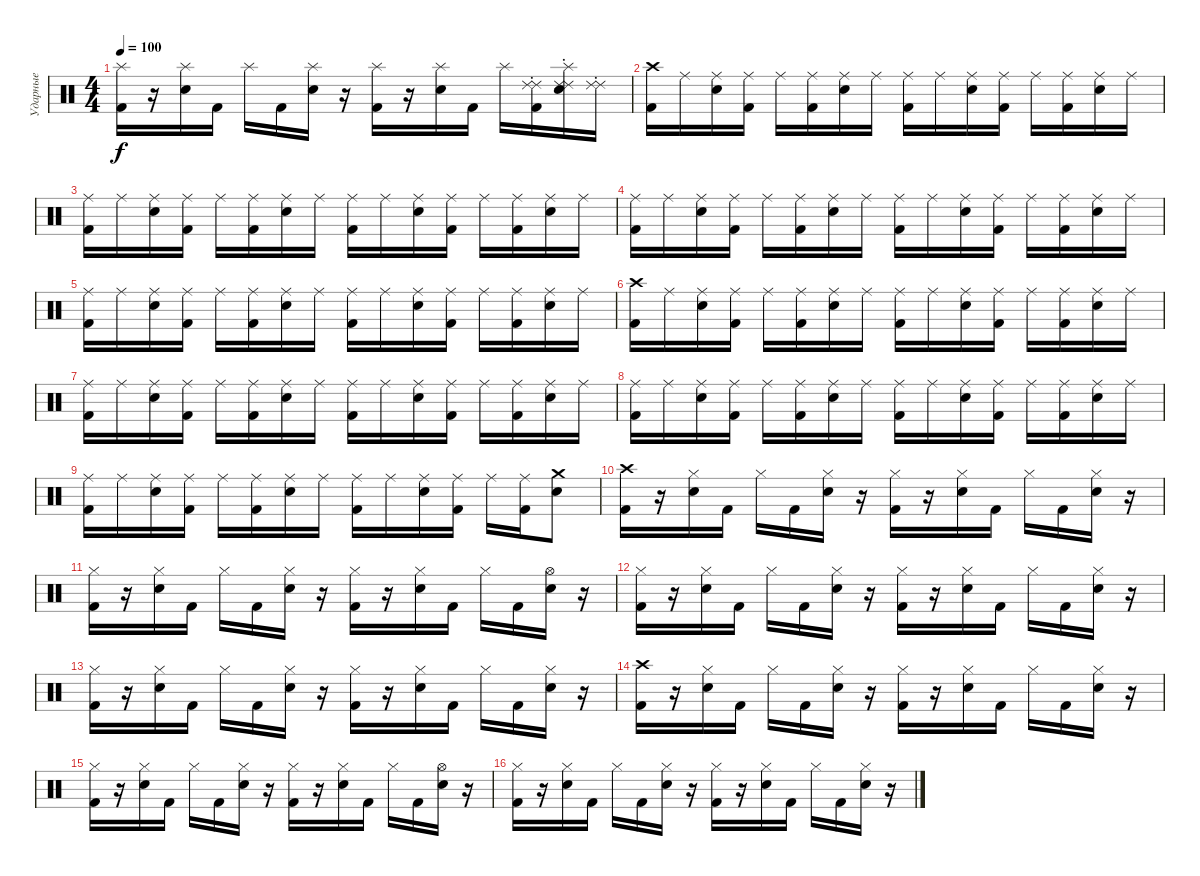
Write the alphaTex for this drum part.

\track ("Ударные" "Ударные") {instrument percussion}
\staff {score}
\articulation defaults
\ts (4 4)
\tempo 100
\clef neutral
\ks c
("Splash (hit)" "Kick (hit) 2").16{dy f} r.16 ("Splash (hit)" "Electric Snare (hit)").16 "Kick (hit) 2".16 "Splash (hit)".16 "Kick (hit) 2".16 ("Splash (hit)" "Electric Snare (hit)").16 r.16 ("Splash (hit)" "Kick (hit) 2").16 r.16 ("Splash (hit)" "Electric Snare (hit)").16 "Kick (hit) 2".16 "Splash (hit)".16 ("Ride (choke) 2" "Ride (choke) 2" "Kick (hit) 2").16 ("Splash (hit)" "Ride (choke) 2" "Ride (choke) 2" "Electric Snare (hit)").16 ("Ride (choke) 2" "Ride (choke) 2").16 |
("Crash high (hit)" "Kick (hit) 2").16 "Ride (middle)".16 ("Ride (middle)" "Electric Snare (hit)").16 ("Ride (middle)" "Kick (hit) 2").16 "Ride (middle)".16 ("Ride (middle)" "Kick (hit) 2").16 ("Ride (middle)" "Electric Snare (hit)").16 "Ride (middle)".16 ("Ride (middle)" "Kick (hit) 2").16 "Ride (middle)".16 ("Ride (middle)" "Electric Snare (hit)").16 ("Ride (middle)" "Kick (hit) 2").16 "Ride (middle)".16 ("Ride (middle)" "Kick (hit) 2").16 ("Ride (middle)" "Electric Snare (hit)").16 "Ride (middle)".16 |
("Ride (middle)" "Kick (hit) 2").16 "Ride (middle)".16 ("Ride (middle)" "Electric Snare (hit)").16 ("Ride (middle)" "Kick (hit) 2").16 "Ride (middle)".16 ("Ride (middle)" "Kick (hit) 2").16 ("Ride (middle)" "Electric Snare (hit)").16 "Ride (middle)".16 ("Ride (middle)" "Kick (hit) 2").16 "Ride (middle)".16 ("Ride (middle)" "Electric Snare (hit)").16 ("Ride (middle)" "Kick (hit) 2").16 "Ride (middle)".16 ("Ride (middle)" "Kick (hit) 2").16 ("Ride (middle)" "Electric Snare (hit)").16 "Ride (middle)".16 |
("Ride (middle)" "Kick (hit) 2").16 "Ride (middle)".16 ("Ride (middle)" "Electric Snare (hit)").16 ("Ride (middle)" "Kick (hit) 2").16 "Ride (middle)".16 ("Ride (middle)" "Kick (hit) 2").16 ("Ride (middle)" "Electric Snare (hit)").16 "Ride (middle)".16 ("Ride (middle)" "Kick (hit) 2").16 "Ride (middle)".16 ("Ride (middle)" "Electric Snare (hit)").16 ("Ride (middle)" "Kick (hit) 2").16 "Ride (middle)".16 ("Ride (middle)" "Kick (hit) 2").16 ("Ride (middle)" "Electric Snare (hit)").16 "Ride (middle)".16 |
("Ride (middle)" "Kick (hit) 2").16 "Ride (middle)".16 ("Ride (middle)" "Electric Snare (hit)").16 ("Ride (middle)" "Kick (hit) 2").16 "Ride (middle)".16 ("Ride (middle)" "Kick (hit) 2").16 ("Ride (middle)" "Electric Snare (hit)").16 "Ride (middle)".16 ("Ride (middle)" "Kick (hit) 2").16 "Ride (middle)".16 ("Ride (middle)" "Electric Snare (hit)").16 ("Ride (middle)" "Kick (hit) 2").16 "Ride (middle)".16 ("Ride (middle)" "Kick (hit) 2").16 ("Ride (middle)" "Electric Snare (hit)").16 "Ride (middle)".16 |
("Crash high (hit)" "Kick (hit) 2").16 "Ride (middle)".16 ("Ride (middle)" "Electric Snare (hit)").16 ("Ride (middle)" "Kick (hit) 2").16 "Ride (middle)".16 ("Ride (middle)" "Kick (hit) 2").16 ("Ride (middle)" "Electric Snare (hit)").16 "Ride (middle)".16 ("Ride (middle)" "Kick (hit) 2").16 "Ride (middle)".16 ("Ride (middle)" "Electric Snare (hit)").16 ("Ride (middle)" "Kick (hit) 2").16 "Ride (middle)".16 ("Ride (middle)" "Kick (hit) 2").16 ("Ride (middle)" "Electric Snare (hit)").16 "Ride (middle)".16 |
("Ride (middle)" "Kick (hit) 2").16 "Ride (middle)".16 ("Ride (middle)" "Electric Snare (hit)").16 ("Ride (middle)" "Kick (hit) 2").16 "Ride (middle)".16 ("Ride (middle)" "Kick (hit) 2").16 ("Ride (middle)" "Electric Snare (hit)").16 "Ride (middle)".16 ("Ride (middle)" "Kick (hit) 2").16 "Ride (middle)".16 ("Ride (middle)" "Electric Snare (hit)").16 ("Ride (middle)" "Kick (hit) 2").16 "Ride (middle)".16 ("Ride (middle)" "Kick (hit) 2").16 ("Ride (middle)" "Electric Snare (hit)").16 "Ride (middle)".16 |
("Ride (middle)" "Kick (hit) 2").16 "Ride (middle)".16 ("Ride (middle)" "Electric Snare (hit)").16 ("Ride (middle)" "Kick (hit) 2").16 "Ride (middle)".16 ("Ride (middle)" "Kick (hit) 2").16 ("Ride (middle)" "Electric Snare (hit)").16 "Ride (middle)".16 ("Ride (middle)" "Kick (hit) 2").16 "Ride (middle)".16 ("Ride (middle)" "Electric Snare (hit)").16 ("Ride (middle)" "Kick (hit) 2").16 "Ride (middle)".16 ("Ride (middle)" "Kick (hit) 2").16 ("Ride (middle)" "Electric Snare (hit)").16 "Ride (middle)".16 |
("Ride (middle)" "Kick (hit) 2").16 "Ride (middle)".16 ("Ride (middle)" "Electric Snare (hit)").16 ("Ride (middle)" "Kick (hit) 2").16 "Ride (middle)".16 ("Ride (middle)" "Kick (hit) 2").16 ("Ride (middle)" "Electric Snare (hit)").16 "Ride (middle)".16 ("Ride (middle)" "Kick (hit) 2").16 "Ride (middle)".16 ("Ride (middle)" "Electric Snare (hit)").16 ("Ride (middle)" "Kick (hit) 2").16 "Ride (middle)".16 ("Ride (middle)" "Kick (hit) 2").16 ("Crash medium (hit)" "Electric Snare (hit)").8 |
("Crash high (hit)" "Kick (hit) 2").16 r.16 ("Hi-Hat (closed)" "Electric Snare (hit)").16 "Kick (hit) 2".16 "Hi-Hat (closed)".16 "Kick (hit) 2".16 ("Hi-Hat (closed)" "Electric Snare (hit)").16 r.16 ("Hi-Hat (closed)" "Kick (hit) 2").16 r.16 ("Hi-Hat (closed)" "Electric Snare (hit)").16 "Kick (hit) 2".16 "Hi-Hat (closed)".16 "Kick (hit) 2".16 ("Hi-Hat (closed)" "Electric Snare (hit)").16 r.16 |
("Hi-Hat (closed)" "Kick (hit) 2").16 r.16 ("Hi-Hat (closed)" "Electric Snare (hit)").16 "Kick (hit) 2".16 "Hi-Hat (closed)".16 "Kick (hit) 2".16 ("Hi-Hat (closed)" "Electric Snare (hit)").16 r.16 ("Hi-Hat (closed)" "Kick (hit) 2").16 r.16 ("Hi-Hat (closed)" "Electric Snare (hit)").16 "Kick (hit) 2".16 "Hi-Hat (closed)".16 "Kick (hit) 2".16 ("Hi-Hat (open)" "Electric Snare (hit)").16 r.16 |
("Hi-Hat (closed)" "Kick (hit) 2").16 r.16 ("Hi-Hat (closed)" "Electric Snare (hit)").16 "Kick (hit) 2".16 "Hi-Hat (closed)".16 "Kick (hit) 2".16 ("Hi-Hat (closed)" "Electric Snare (hit)").16 r.16 ("Hi-Hat (closed)" "Kick (hit) 2").16 r.16 ("Hi-Hat (closed)" "Electric Snare (hit)").16 "Kick (hit) 2".16 "Hi-Hat (closed)".16 "Kick (hit) 2".16 ("Hi-Hat (closed)" "Electric Snare (hit)").16 r.16 |
("Hi-Hat (closed)" "Kick (hit) 2").16 r.16 ("Hi-Hat (closed)" "Electric Snare (hit)").16 "Kick (hit) 2".16 "Hi-Hat (closed)".16 "Kick (hit) 2".16 ("Hi-Hat (closed)" "Electric Snare (hit)").16 r.16 ("Hi-Hat (closed)" "Kick (hit) 2").16 r.16 ("Hi-Hat (closed)" "Electric Snare (hit)").16 "Kick (hit) 2".16 "Hi-Hat (closed)".16 "Kick (hit) 2".16 ("Hi-Hat (closed)" "Electric Snare (hit)").16 r.16 |
("Crash high (hit)" "Kick (hit) 2").16 r.16 ("Hi-Hat (closed)" "Electric Snare (hit)").16 "Kick (hit) 2".16 "Hi-Hat (closed)".16 "Kick (hit) 2".16 ("Hi-Hat (closed)" "Electric Snare (hit)").16 r.16 ("Hi-Hat (closed)" "Kick (hit) 2").16 r.16 ("Hi-Hat (closed)" "Electric Snare (hit)").16 "Kick (hit) 2".16 "Hi-Hat (closed)".16 "Kick (hit) 2".16 ("Hi-Hat (closed)" "Electric Snare (hit)").16 r.16 |
("Hi-Hat (closed)" "Kick (hit) 2").16 r.16 ("Hi-Hat (closed)" "Electric Snare (hit)").16 "Kick (hit) 2".16 "Hi-Hat (closed)".16 "Kick (hit) 2".16 ("Hi-Hat (closed)" "Electric Snare (hit)").16 r.16 ("Hi-Hat (closed)" "Kick (hit) 2").16 r.16 ("Hi-Hat (closed)" "Electric Snare (hit)").16 "Kick (hit) 2".16 "Hi-Hat (closed)".16 "Kick (hit) 2".16 ("Hi-Hat (open)" "Electric Snare (hit)").16 r.16 |
("Hi-Hat (closed)" "Kick (hit) 2").16 r.16 ("Hi-Hat (closed)" "Electric Snare (hit)").16 "Kick (hit) 2".16 "Hi-Hat (closed)".16 "Kick (hit) 2".16 ("Hi-Hat (closed)" "Electric Snare (hit)").16 r.16 ("Hi-Hat (closed)" "Kick (hit) 2").16 r.16 ("Hi-Hat (closed)" "Electric Snare (hit)").16 "Kick (hit) 2".16 "Hi-Hat (closed)".16 "Kick (hit) 2".16 ("Hi-Hat (closed)" "Electric Snare (hit)").16 r.16
